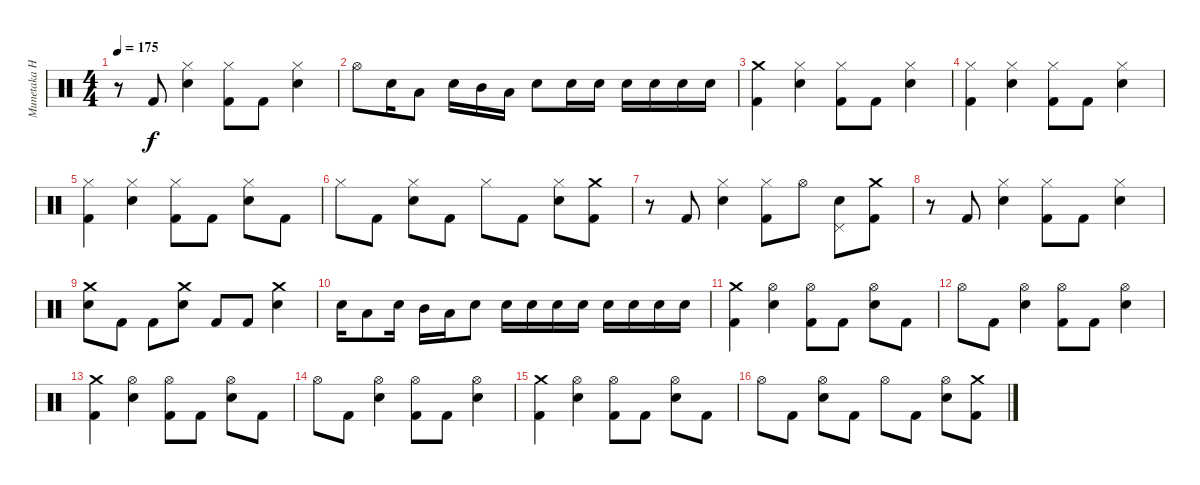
\track ("Munetaka Higuchi" "Munetaka H") {instrument percussion}
\staff {score}
\articulation defaults
\ts (4 4)
\tempo 175
\clef neutral
\ks c
r.8{dy f} "Kick (hit) 2".8 ("Hi-Hat (closed)" "Electric Snare (hit)").4 ("Hi-Hat (closed)" "Kick (hit) 2").8 "Kick (hit) 2".8 ("Hi-Hat (closed)" "Electric Snare (hit)").4 |
"Hi-Hat (open)".8 "Electric Snare (hit)".16 "Low Tom (hit)".8 "Electric Snare (hit)".16 "Mid Tom (hit)".16 "Low Tom (hit)".16 "Electric Snare (hit)".8 "Electric Snare (hit)".16 "Electric Snare (hit)".16 "Electric Snare (hit)".16 "Electric Snare (hit)".16 "Electric Snare (hit)".16 "Electric Snare (hit)".16 |
("Crash medium (hit)" "Kick (hit) 2").4 ("Hi-Hat (closed)" "Electric Snare (hit)").4 ("Hi-Hat (closed)" "Kick (hit) 2").8 "Kick (hit) 2".8 ("Hi-Hat (closed)" "Electric Snare (hit)").4 |
("Hi-Hat (closed)" "Kick (hit) 2").4 ("Hi-Hat (closed)" "Electric Snare (hit)").4 ("Hi-Hat (closed)" "Kick (hit) 2").8 "Kick (hit) 2".8 ("Hi-Hat (closed)" "Electric Snare (hit)").4 |
("Hi-Hat (closed)" "Kick (hit) 2").4 ("Hi-Hat (closed)" "Electric Snare (hit)").4 ("Hi-Hat (closed)" "Kick (hit) 2").8 "Kick (hit) 2".8 ("Hi-Hat (closed)" "Electric Snare (hit)").8 "Kick (hit) 2".8 |
"Hi-Hat (closed)".8 "Kick (hit) 2".8 ("Hi-Hat (closed)" "Electric Snare (hit)").8 "Kick (hit) 2".8 "Hi-Hat (closed)".8 "Kick (hit) 2".8 ("Hi-Hat (closed)" "Electric Snare (hit)").8 ("Crash medium (hit)" "Kick (hit) 2").8 |
r.8 "Kick (hit) 2".8 ("Hi-Hat (closed)" "Electric Snare (hit)").4 ("Hi-Hat (closed)" "Kick (hit) 2").8 "Hi-Hat (open)".8 ("Electric Snare (hit)" "Pedal Hi-Hat (hit)").8 ("Crash medium (hit)" "Kick (hit) 2").8 |
r.8 "Kick (hit) 2".8 ("Hi-Hat (closed)" "Electric Snare (hit)").4 ("Hi-Hat (closed)" "Kick (hit) 2").8 "Kick (hit) 2".8 ("Hi-Hat (closed)" "Electric Snare (hit)").4 |
("Crash medium (hit)" "Electric Snare (hit)").8 "Kick (hit) 2".8 "Kick (hit) 2".8 ("Crash medium (hit)" "Electric Snare (hit)").8 "Kick (hit) 2".8 "Kick (hit) 2".8 ("Crash medium (hit)" "Electric Snare (hit)").4 |
"Electric Snare (hit)".16 "Low Tom (hit)".8 "Electric Snare (hit)".16 "Mid Tom (hit)".16 "Low Tom (hit)".16 "Electric Snare (hit)".8 "Electric Snare (hit)".16 "Electric Snare (hit)".16 "Electric Snare (hit)".16 "Electric Snare (hit)".16 "Electric Snare (hit)".16 "Electric Snare (hit)".16 "Electric Snare (hit)".16 "Electric Snare (hit)".16 |
("Crash medium (hit)" "Kick (hit) 2").4 ("Hi-Hat (open)" "Electric Snare (hit)").4 ("Hi-Hat (open)" "Kick (hit) 2").8 "Kick (hit) 2".8 ("Hi-Hat (open)" "Electric Snare (hit)").8 "Kick (hit) 2".8 |
"Hi-Hat (open)".8 "Kick (hit) 2".8 ("Hi-Hat (open)" "Electric Snare (hit)").4 ("Hi-Hat (open)" "Kick (hit) 2").8 "Kick (hit) 2".8 ("Hi-Hat (open)" "Electric Snare (hit)").4 |
("Crash medium (hit)" "Kick (hit) 2").4 ("Hi-Hat (open)" "Electric Snare (hit)").4 ("Hi-Hat (open)" "Kick (hit) 2").8 "Kick (hit) 2".8 ("Hi-Hat (open)" "Electric Snare (hit)").8 "Kick (hit) 2".8 |
"Hi-Hat (open)".8 "Kick (hit) 2".8 ("Hi-Hat (open)" "Electric Snare (hit)").4 ("Hi-Hat (open)" "Kick (hit) 2").8 "Kick (hit) 2".8 ("Hi-Hat (open)" "Electric Snare (hit)").4 |
("Crash medium (hit)" "Kick (hit) 2").4 ("Hi-Hat (open)" "Electric Snare (hit)").4 ("Hi-Hat (open)" "Kick (hit) 2").8 "Kick (hit) 2".8 ("Hi-Hat (open)" "Electric Snare (hit)").8 "Kick (hit) 2".8 |
"Hi-Hat (open)".8 "Kick (hit) 2".8 ("Hi-Hat (open)" "Electric Snare (hit)").8 "Kick (hit) 2".8 "Hi-Hat (open)".8 "Kick (hit) 2".8 ("Hi-Hat (open)" "Electric Snare (hit)").8 ("Crash medium (hit)" "Kick (hit) 2").8
